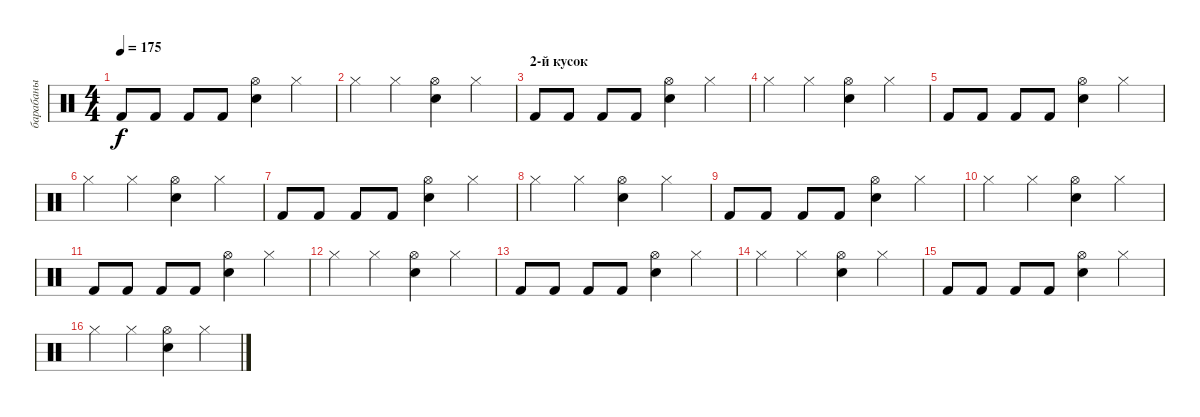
\track ("барабаны" "барабаны") {instrument percussion}
\staff {score}
\articulation defaults
\ts (4 4)
\tempo 175
\clef neutral
\ks c "Kick (hit) 2".8{dy f} "Kick (hit) 2".8 "Kick (hit) 2".8 "Kick (hit) 2".8
("Hi-Hat (open)" "Snare (hit) 2").4 "Hi-Hat (closed)".4 |
"Hi-Hat (closed)".4 "Hi-Hat (closed)".4 ("Hi-Hat (open)" "Snare (hit) 2").4 "Hi-Hat (closed)".4 |
\section ("" "2-й кусок")
"Kick (hit) 2".8 "Kick (hit) 2".8 "Kick (hit) 2".8 "Kick (hit) 2".8 ("Hi-Hat (open)" "Snare (hit) 2").4 "Hi-Hat (closed)".4 |
"Hi-Hat (closed)".4 "Hi-Hat (closed)".4 ("Hi-Hat (open)" "Snare (hit) 2").4 "Hi-Hat (closed)".4 |
"Kick (hit) 2".8 "Kick (hit) 2".8 "Kick (hit) 2".8 "Kick (hit) 2".8 ("Hi-Hat (open)" "Snare (hit) 2").4 "Hi-Hat (closed)".4 |
"Hi-Hat (closed)".4 "Hi-Hat (closed)".4 ("Hi-Hat (open)" "Snare (hit) 2").4 "Hi-Hat (closed)".4 |
"Kick (hit) 2".8 "Kick (hit) 2".8 "Kick (hit) 2".8 "Kick (hit) 2".8 ("Hi-Hat (open)" "Snare (hit) 2").4 "Hi-Hat (closed)".4 |
"Hi-Hat (closed)".4 "Hi-Hat (closed)".4 ("Hi-Hat (open)" "Snare (hit) 2").4 "Hi-Hat (closed)".4 |
"Kick (hit) 2".8 "Kick (hit) 2".8 "Kick (hit) 2".8 "Kick (hit) 2".8 ("Hi-Hat (open)" "Snare (hit) 2").4 "Hi-Hat (closed)".4 |
"Hi-Hat (closed)".4 "Hi-Hat (closed)".4 ("Hi-Hat (open)" "Snare (hit) 2").4 "Hi-Hat (closed)".4 |
"Kick (hit) 2".8 "Kick (hit) 2".8 "Kick (hit) 2".8 "Kick (hit) 2".8 ("Hi-Hat (open)" "Snare (hit) 2").4 "Hi-Hat (closed)".4 |
"Hi-Hat (closed)".4 "Hi-Hat (closed)".4 ("Hi-Hat (open)" "Snare (hit) 2").4 "Hi-Hat (closed)".4 |
"Kick (hit) 2".8 "Kick (hit) 2".8 "Kick (hit) 2".8 "Kick (hit) 2".8 ("Hi-Hat (open)" "Snare (hit) 2").4 "Hi-Hat (closed)".4 |
"Hi-Hat (closed)".4 "Hi-Hat (closed)".4 ("Hi-Hat (open)" "Snare (hit) 2").4 "Hi-Hat (closed)".4 |
"Kick (hit) 2".8 "Kick (hit) 2".8 "Kick (hit) 2".8 "Kick (hit) 2".8 ("Hi-Hat (open)" "Snare (hit) 2").4 "Hi-Hat (closed)".4 |
"Hi-Hat (closed)".4 "Hi-Hat (closed)".4 ("Hi-Hat (open)" "Snare (hit) 2").4 "Hi-Hat (closed)".4
